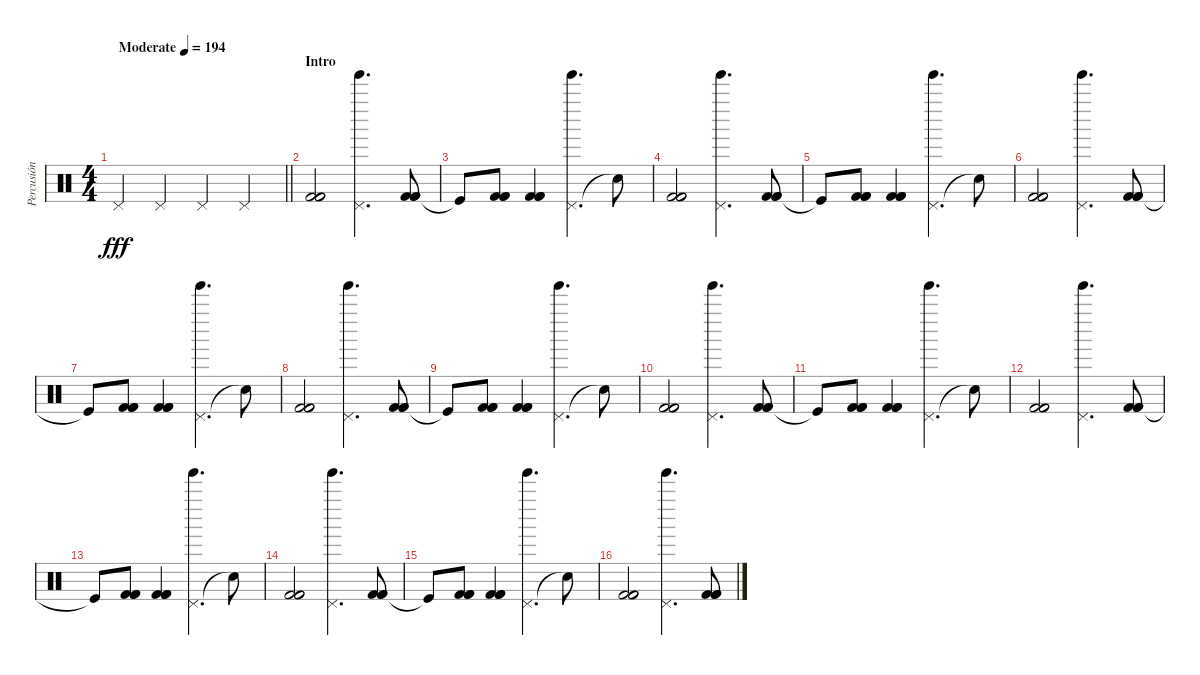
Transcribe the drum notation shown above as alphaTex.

\track ("Percusión" "Percusión") {instrument percussion}
\staff {score}
\articulation defaults
\ts (4 4)
\tempo (194 "Moderate")
\clef neutral
\barLineRight lightlight
\ks c "Pedal Hi-Hat (hit)".4{dy fff} "Pedal Hi-Hat (hit)".4 "Pedal Hi-Hat (hit)".4 "Pedal Hi-Hat (hit)".4
|
\section ("" "Intro")
("Kick (hit) 2" "Kick (hit) 2" "Kick (hit) 2").2 ("Pedal Hi-Hat (hit)" "Tinkle Bell (hit)").4{d} ("Kick (hit) 2" "Kick (hit) 2" "Kick (hit) 2").8 |
"Kick (hit)"{t}.8 ("Kick (hit) 2" "Kick (hit) 2" "Kick (hit) 2").8 ("Kick (hit) 2" "Kick (hit) 2" "Kick (hit) 2").4 ("Pedal Hi-Hat (hit)" "Tinkle Bell (hit)").4{d} "Snare (hit)"{t}.8 |
("Kick (hit) 2" "Kick (hit) 2" "Kick (hit) 2").2 ("Pedal Hi-Hat (hit)" "Tinkle Bell (hit)").4{d} ("Kick (hit) 2" "Kick (hit) 2" "Kick (hit) 2").8 |
"Kick (hit)"{t}.8 ("Kick (hit) 2" "Kick (hit) 2" "Kick (hit) 2").8 ("Kick (hit) 2" "Kick (hit) 2" "Kick (hit) 2").4 ("Pedal Hi-Hat (hit)" "Tinkle Bell (hit)").4{d} "Snare (hit)"{t}.8 |
("Kick (hit) 2" "Kick (hit) 2" "Kick (hit) 2").2 ("Pedal Hi-Hat (hit)" "Tinkle Bell (hit)").4{d} ("Kick (hit) 2" "Kick (hit) 2" "Kick (hit) 2").8 |
"Kick (hit)"{t}.8 ("Kick (hit) 2" "Kick (hit) 2" "Kick (hit) 2").8 ("Kick (hit) 2" "Kick (hit) 2" "Kick (hit) 2").4 ("Pedal Hi-Hat (hit)" "Tinkle Bell (hit)").4{d} "Snare (hit)"{t}.8 |
("Kick (hit) 2" "Kick (hit) 2" "Kick (hit) 2").2 ("Pedal Hi-Hat (hit)" "Tinkle Bell (hit)").4{d} ("Kick (hit) 2" "Kick (hit) 2" "Kick (hit) 2").8 |
"Kick (hit)"{t}.8 ("Kick (hit) 2" "Kick (hit) 2" "Kick (hit) 2").8 ("Kick (hit) 2" "Kick (hit) 2" "Kick (hit) 2").4 ("Pedal Hi-Hat (hit)" "Tinkle Bell (hit)").4{d} "Snare (hit)"{t}.8 |
("Kick (hit) 2" "Kick (hit) 2" "Kick (hit) 2").2 ("Pedal Hi-Hat (hit)" "Tinkle Bell (hit)").4{d} ("Kick (hit) 2" "Kick (hit) 2" "Kick (hit) 2").8 |
"Kick (hit)"{t}.8 ("Kick (hit) 2" "Kick (hit) 2" "Kick (hit) 2").8 ("Kick (hit) 2" "Kick (hit) 2" "Kick (hit) 2").4 ("Pedal Hi-Hat (hit)" "Tinkle Bell (hit)").4{d} "Snare (hit)"{t}.8 |
("Kick (hit) 2" "Kick (hit) 2" "Kick (hit) 2").2 ("Pedal Hi-Hat (hit)" "Tinkle Bell (hit)").4{d} ("Kick (hit) 2" "Kick (hit) 2" "Kick (hit) 2").8 |
"Kick (hit)"{t}.8 ("Kick (hit) 2" "Kick (hit) 2" "Kick (hit) 2").8 ("Kick (hit) 2" "Kick (hit) 2" "Kick (hit) 2").4 ("Pedal Hi-Hat (hit)" "Tinkle Bell (hit)").4{d} "Snare (hit)"{t}.8 |
("Kick (hit) 2" "Kick (hit) 2" "Kick (hit) 2").2 ("Pedal Hi-Hat (hit)" "Tinkle Bell (hit)").4{d} ("Kick (hit) 2" "Kick (hit) 2" "Kick (hit) 2").8 |
"Kick (hit)"{t}.8 ("Kick (hit) 2" "Kick (hit) 2" "Kick (hit) 2").8 ("Kick (hit) 2" "Kick (hit) 2" "Kick (hit) 2").4 ("Pedal Hi-Hat (hit)" "Tinkle Bell (hit)").4{d} "Snare (hit)"{t}.8 |
("Kick (hit) 2" "Kick (hit) 2" "Kick (hit) 2").2 ("Pedal Hi-Hat (hit)" "Tinkle Bell (hit)").4{d} ("Kick (hit) 2" "Kick (hit) 2" "Kick (hit) 2").8
